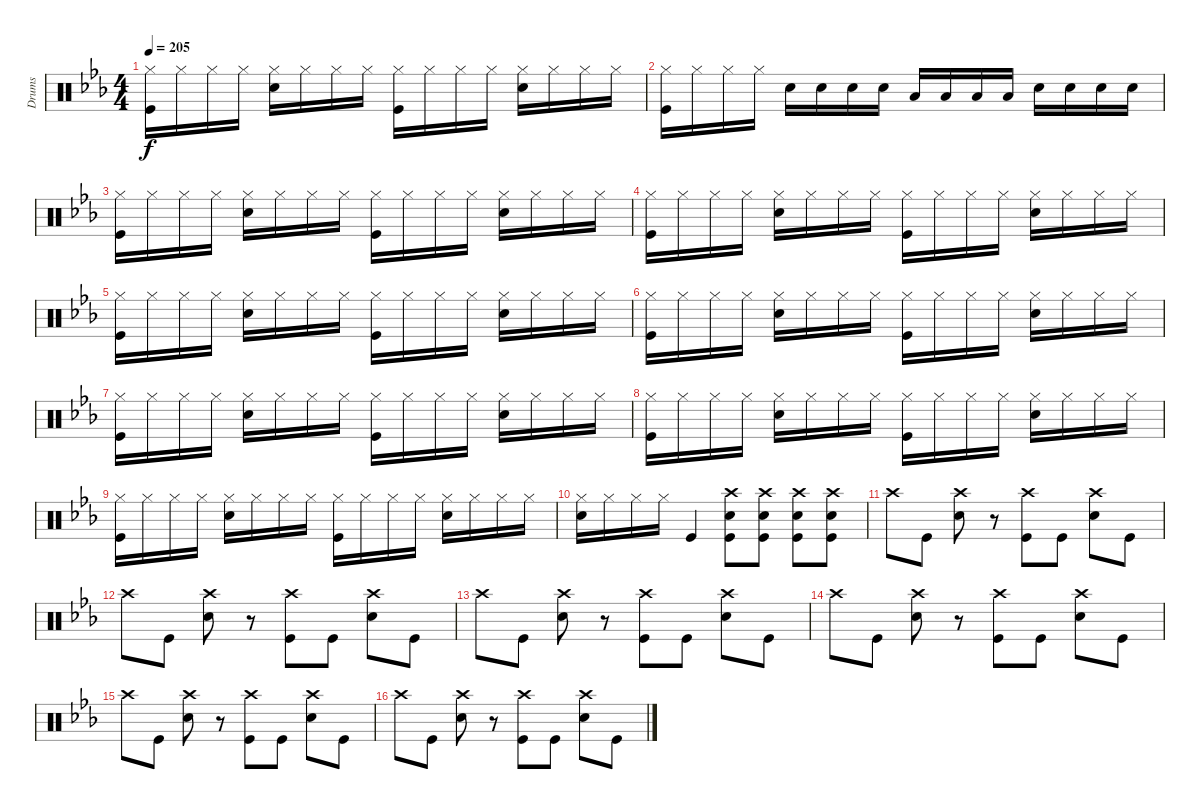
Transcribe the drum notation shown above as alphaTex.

\track ("Drums" "Drums") {instrument percussion}
\staff {score}
\articulation defaults
\ts (4 4)
\tempo 205
\clef neutral
\ks eb
("Hi-Hat (closed)" "Kick (hit)").16{dy f} "Hi-Hat (closed)".16 "Hi-Hat (closed)".16 "Hi-Hat (closed)".16 ("Hi-Hat (closed)" "Snare (hit) 2").16 "Hi-Hat (closed)".16 "Hi-Hat (closed)".16 "Hi-Hat (closed)".16 ("Hi-Hat (closed)" "Kick (hit)").16 "Hi-Hat (closed)".16 "Hi-Hat (closed)".16 "Hi-Hat (closed)".16 ("Hi-Hat (closed)" "Snare (hit) 2").16 "Hi-Hat (closed)".16 "Hi-Hat (closed)".16 "Hi-Hat (closed)".16 |
("Hi-Hat (closed)" "Kick (hit)").16 "Hi-Hat (closed)".16 "Hi-Hat (closed)".16 "Hi-Hat (closed)".16 "Snare (hit) 2".16 "Snare (hit) 2".16 "Snare (hit) 2".16 "Snare (hit) 2".16 "Low Tom (hit)".16 "Low Tom (hit)".16 "Low Tom (hit)".16 "Low Tom (hit)".16 "Snare (hit) 2".16 "Snare (hit) 2".16 "Snare (hit) 2".16 "Snare (hit) 2".16 |
("Hi-Hat (closed)" "Kick (hit)").16 "Hi-Hat (closed)".16 "Hi-Hat (closed)".16 "Hi-Hat (closed)".16 ("Hi-Hat (closed)" "Snare (hit) 2").16 "Hi-Hat (closed)".16 "Hi-Hat (closed)".16 "Hi-Hat (closed)".16 ("Hi-Hat (closed)" "Kick (hit)").16 "Hi-Hat (closed)".16 "Hi-Hat (closed)".16 "Hi-Hat (closed)".16 ("Hi-Hat (closed)" "Snare (hit) 2").16 "Hi-Hat (closed)".16 "Hi-Hat (closed)".16 "Hi-Hat (closed)".16 |
("Hi-Hat (closed)" "Kick (hit)").16 "Hi-Hat (closed)".16 "Hi-Hat (closed)".16 "Hi-Hat (closed)".16 ("Hi-Hat (closed)" "Snare (hit) 2").16 "Hi-Hat (closed)".16 "Hi-Hat (closed)".16 "Hi-Hat (closed)".16 ("Hi-Hat (closed)" "Kick (hit)").16 "Hi-Hat (closed)".16 "Hi-Hat (closed)".16 "Hi-Hat (closed)".16 ("Hi-Hat (closed)" "Snare (hit) 2").16 "Hi-Hat (closed)".16 "Hi-Hat (closed)".16 "Hi-Hat (closed)".16 |
("Hi-Hat (closed)" "Kick (hit)").16 "Hi-Hat (closed)".16 "Hi-Hat (closed)".16 "Hi-Hat (closed)".16 ("Hi-Hat (closed)" "Snare (hit) 2").16 "Hi-Hat (closed)".16 "Hi-Hat (closed)".16 "Hi-Hat (closed)".16 ("Hi-Hat (closed)" "Kick (hit)").16 "Hi-Hat (closed)".16 "Hi-Hat (closed)".16 "Hi-Hat (closed)".16 ("Hi-Hat (closed)" "Snare (hit) 2").16 "Hi-Hat (closed)".16 "Hi-Hat (closed)".16 "Hi-Hat (closed)".16 |
("Hi-Hat (closed)" "Kick (hit)").16 "Hi-Hat (closed)".16 "Hi-Hat (closed)".16 "Hi-Hat (closed)".16 ("Hi-Hat (closed)" "Snare (hit) 2").16 "Hi-Hat (closed)".16 "Hi-Hat (closed)".16 "Hi-Hat (closed)".16 ("Hi-Hat (closed)" "Kick (hit)").16 "Hi-Hat (closed)".16 "Hi-Hat (closed)".16 "Hi-Hat (closed)".16 ("Hi-Hat (closed)" "Snare (hit) 2").16 "Hi-Hat (closed)".16 "Hi-Hat (closed)".16 "Hi-Hat (closed)".16 |
("Hi-Hat (closed)" "Kick (hit)").16 "Hi-Hat (closed)".16 "Hi-Hat (closed)".16 "Hi-Hat (closed)".16 ("Hi-Hat (closed)" "Snare (hit) 2").16 "Hi-Hat (closed)".16 "Hi-Hat (closed)".16 "Hi-Hat (closed)".16 ("Hi-Hat (closed)" "Kick (hit)").16 "Hi-Hat (closed)".16 "Hi-Hat (closed)".16 "Hi-Hat (closed)".16 ("Hi-Hat (closed)" "Snare (hit) 2").16 "Hi-Hat (closed)".16 "Hi-Hat (closed)".16 "Hi-Hat (closed)".16 |
("Hi-Hat (closed)" "Kick (hit)").16 "Hi-Hat (closed)".16 "Hi-Hat (closed)".16 "Hi-Hat (closed)".16 ("Hi-Hat (closed)" "Snare (hit) 2").16 "Hi-Hat (closed)".16 "Hi-Hat (closed)".16 "Hi-Hat (closed)".16 ("Hi-Hat (closed)" "Kick (hit)").16 "Hi-Hat (closed)".16 "Hi-Hat (closed)".16 "Hi-Hat (closed)".16 ("Hi-Hat (closed)" "Snare (hit) 2").16 "Hi-Hat (closed)".16 "Hi-Hat (closed)".16 "Hi-Hat (closed)".16 |
("Hi-Hat (closed)" "Kick (hit)").16 "Hi-Hat (closed)".16 "Hi-Hat (closed)".16 "Hi-Hat (closed)".16 ("Hi-Hat (closed)" "Snare (hit) 2").16 "Hi-Hat (closed)".16 "Hi-Hat (closed)".16 "Hi-Hat (closed)".16 ("Hi-Hat (closed)" "Kick (hit)").16 "Hi-Hat (closed)".16 "Hi-Hat (closed)".16 "Hi-Hat (closed)".16 ("Hi-Hat (closed)" "Snare (hit) 2").16 "Hi-Hat (closed)".16 "Hi-Hat (closed)".16 "Hi-Hat (closed)".16 |
("Hi-Hat (closed)" "Snare (hit) 2").16 "Hi-Hat (closed)".16 "Hi-Hat (closed)".16 "Hi-Hat (closed)".16 "Kick (hit)".4 ("Crash high (hit)" "Snare (hit) 2" "Kick (hit)").8 ("Crash high (hit)" "Snare (hit) 2" "Kick (hit)").8 ("Crash high (hit)" "Snare (hit) 2" "Kick (hit)").8 ("Crash high (hit)" "Snare (hit) 2" "Kick (hit)").8 |
"Crash high (hit)".8 "Kick (hit)".8 ("Crash high (hit)" "Snare (hit) 2").8 r.8 ("Crash high (hit)" "Kick (hit)").8 "Kick (hit)".8 ("Crash high (hit)" "Snare (hit) 2").8 "Kick (hit)".8 |
"Crash high (hit)".8 "Kick (hit)".8 ("Crash high (hit)" "Snare (hit) 2").8 r.8 ("Crash high (hit)" "Kick (hit)").8 "Kick (hit)".8 ("Crash high (hit)" "Snare (hit) 2").8 "Kick (hit)".8 |
"Crash high (hit)".8 "Kick (hit)".8 ("Crash high (hit)" "Snare (hit) 2").8 r.8 ("Crash high (hit)" "Kick (hit)").8 "Kick (hit)".8 ("Crash high (hit)" "Snare (hit) 2").8 "Kick (hit)".8 |
"Crash high (hit)".8 "Kick (hit)".8 ("Crash high (hit)" "Snare (hit) 2").8 r.8 ("Crash high (hit)" "Kick (hit)").8 "Kick (hit)".8 ("Crash high (hit)" "Snare (hit) 2").8 "Kick (hit)".8 |
"Crash high (hit)".8 "Kick (hit)".8 ("Crash high (hit)" "Snare (hit) 2").8 r.8 ("Crash high (hit)" "Kick (hit)").8 "Kick (hit)".8 ("Crash high (hit)" "Snare (hit) 2").8 "Kick (hit)".8 |
"Crash high (hit)".8 "Kick (hit)".8 ("Crash high (hit)" "Snare (hit) 2").8 r.8 ("Crash high (hit)" "Kick (hit)").8 "Kick (hit)".8 ("Crash high (hit)" "Snare (hit) 2").8 "Kick (hit)".8
